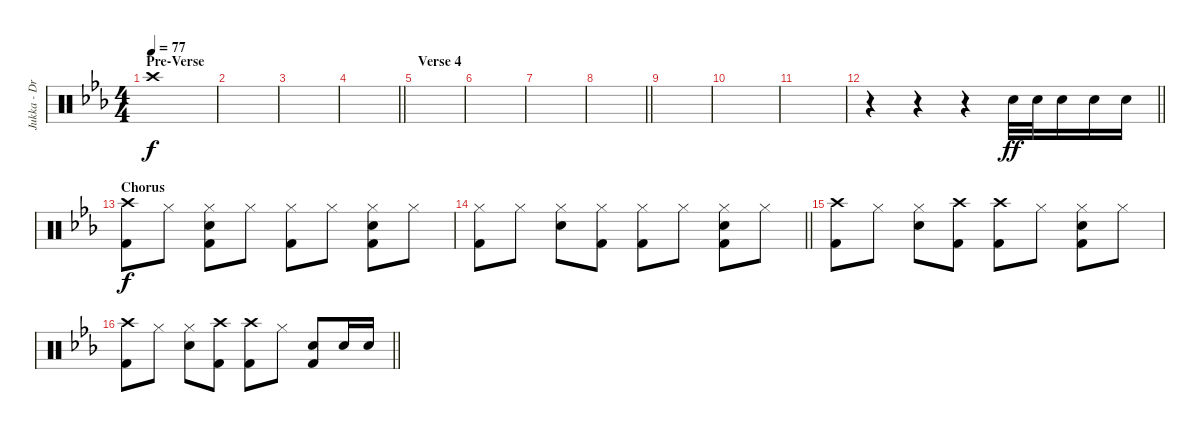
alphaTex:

\track ("Jukka - Drums" "Jukka - Dr") {instrument percussion}
\staff {score}
\articulation defaults
\ts (4 4)
\section ("" "Pre-Verse")
\tempo 77
\clef neutral
\ks cminor "Crash high (hit)".1{dy f}
|
|
|
\barLineRight lightlight
|
\section ("" "Verse 4")
|
|
|
\barLineRight lightlight
|
|
|
|
\barLineRight lightlight
r.4 r.4 r.4 "Snare (hit) 2".32{dy ff} "Snare (hit) 2".32 "Snare (hit) 2".16 "Snare (hit) 2".16 "Snare (hit) 2".16 |
\section ("" "Chorus")
("Crash high (hit)" "Kick (hit) 2").8{dy f} "Hi-Hat (closed)".8 ("Snare (hit) 2" "Hi-Hat (closed)" "Kick (hit) 2").8 "Hi-Hat (closed)".8 ("Hi-Hat (closed)" "Kick (hit) 2").8 "Hi-Hat (closed)".8 ("Hi-Hat (closed)" "Snare (hit) 2" "Kick (hit) 2").8 "Hi-Hat (closed)".8 |
\barLineRight lightlight
("Hi-Hat (closed)" "Kick (hit) 2").8 "Hi-Hat (closed)".8 ("Snare (hit) 2" "Hi-Hat (closed)").8 ("Hi-Hat (closed)" "Kick (hit) 2").8 ("Hi-Hat (closed)" "Kick (hit) 2").8 "Hi-Hat (closed)".8 ("Hi-Hat (closed)" "Snare (hit) 2" "Kick (hit) 2").8 "Hi-Hat (closed)".8 |
("Crash high (hit)" "Kick (hit) 2").8 "Hi-Hat (closed)".8 ("Snare (hit) 2" "Hi-Hat (closed)").8 ("Crash high (hit)" "Kick (hit) 2").8 ("Crash high (hit)" "Kick (hit) 2").8 "Hi-Hat (closed)".8 ("Hi-Hat (closed)" "Snare (hit) 2" "Kick (hit) 2").8 "Hi-Hat (closed)".8 |
\barLineRight lightlight
("Crash high (hit)" "Kick (hit) 2").8 "Hi-Hat (closed)".8 ("Snare (hit) 2" "Hi-Hat (closed)").8 ("Crash high (hit)" "Kick (hit) 2").8 ("Crash high (hit)" "Kick (hit) 2").8 "Hi-Hat (closed)".8 ("Snare (hit) 2" "Kick (hit) 2").8 "Snare (hit) 2".16 "Snare (hit) 2".16
